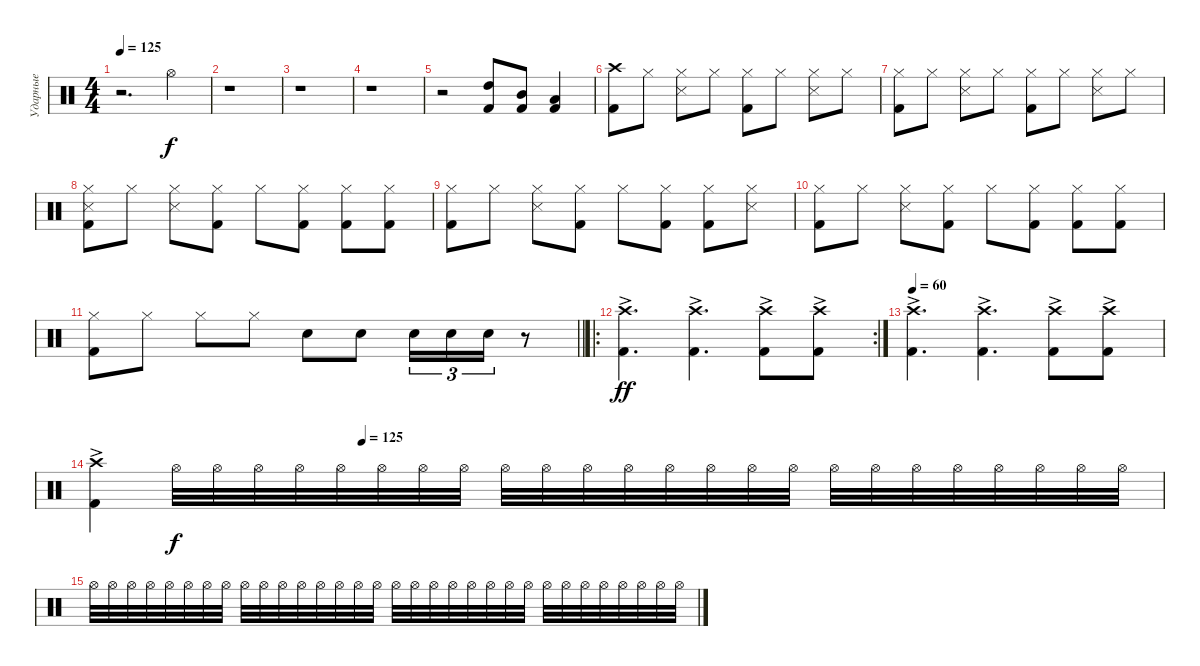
\track ("Ударные" "Ударные") {instrument percussion}
\staff
\articulation defaults
\ts (4 4)
\tempo 125
\clef neutral
\ks c
r.2{d dy ff} "Hi-Hat (open)".4{dy f} |
r.1 |
r.1 |
r.1 |
r.2 ("Kick (hit) 2" "High Tom (hit)").8 ("Kick (hit) 2" "Mid Tom (hit)").8 ("Kick (hit) 2" "Low Tom (hit)").4 |
("Kick (hit) 2" "Crash high (hit)").8 "Hi-Hat (closed)".8 ("Snare (side stick) 3" "Hi-Hat (closed)").8 "Hi-Hat (closed)".8 ("Kick (hit) 2" "Hi-Hat (closed)").8 "Hi-Hat (closed)".8 ("Snare (side stick) 3" "Hi-Hat (closed)").8 "Hi-Hat (closed)".8 |
("Kick (hit) 2" "Hi-Hat (closed)").8 "Hi-Hat (closed)".8 ("Snare (side stick) 3" "Hi-Hat (closed)").8 "Hi-Hat (closed)".8 ("Kick (hit) 2" "Hi-Hat (closed)").8 "Hi-Hat (closed)".8 ("Snare (side stick) 3" "Hi-Hat (closed)").8 "Hi-Hat (closed)".8 |
("Kick (hit) 2" "Snare (side stick) 3" "Hi-Hat (closed)").8 "Hi-Hat (closed)".8 ("Snare (side stick) 3" "Hi-Hat (closed)").8 ("Kick (hit) 2" "Hi-Hat (closed)").8 "Hi-Hat (closed)".8 ("Kick (hit) 2" "Hi-Hat (closed)").8 ("Kick (hit) 2" "Hi-Hat (closed)").8 ("Kick (hit) 2" "Hi-Hat (closed)").8 |
("Kick (hit) 2" "Hi-Hat (closed)").8 "Hi-Hat (closed)".8 ("Snare (side stick) 3" "Hi-Hat (closed)").8 ("Kick (hit) 2" "Hi-Hat (closed)").8 "Hi-Hat (closed)".8 ("Kick (hit) 2" "Hi-Hat (closed)").8 ("Kick (hit) 2" "Hi-Hat (closed)").8 ("Snare (side stick) 3" "Hi-Hat (closed)").8 |
("Kick (hit) 2" "Hi-Hat (closed)").8 "Hi-Hat (closed)".8 ("Snare (side stick) 3" "Hi-Hat (closed)").8 ("Kick (hit) 2" "Hi-Hat (closed)").8 "Hi-Hat (closed)".8 ("Kick (hit) 2" "Hi-Hat (closed)").8 ("Kick (hit) 2" "Hi-Hat (closed)").8 ("Kick (hit) 2" "Hi-Hat (closed)").8 |
\barLineRight lightlight
("Kick (hit) 2" "Hi-Hat (closed)").8 "Hi-Hat (closed)".8 "Hi-Hat (closed)".8 "Hi-Hat (closed)".8 "Snare (hit) 2".8 "Snare (hit) 2".8 "Snare (hit) 2".16{tu (3 2)} "Snare (hit) 2".16{tu (3 2)} "Snare (hit) 2".16{tu (3 2)} r.8 |
\ro
\rc 2
("Kick (hit) 2" "Crash high (hit)"{ac}).4{d dy ff} ("Kick (hit) 2" "Crash high (hit)"{ac}).4{d} ("Kick (hit) 2" "Crash high (hit)"{ac}).8 ("Kick (hit) 2" "Crash high (hit)"{ac}).8 |
\tempo 60
("Kick (hit) 2" "Crash high (hit)"{ac}).4{d} ("Kick (hit) 2" "Crash high (hit)"{ac}).4{d} ("Kick (hit) 2" "Crash high (hit)"{ac}).8 ("Kick (hit) 2" "Crash high (hit)"{ac}).8 |
\tempo (125 0.25)
("Kick (hit) 2" "Crash high (hit)"{ac}).4 "Hi-Hat (open)".32{dy f} "Hi-Hat (open)".32 "Hi-Hat (open)".32 "Hi-Hat (open)".32 "Hi-Hat (open)".32 "Hi-Hat (open)".32 "Hi-Hat (open)".32 "Hi-Hat (open)".32 "Hi-Hat (open)".32 "Hi-Hat (open)".32 "Hi-Hat (open)".32 "Hi-Hat (open)".32 "Hi-Hat (open)".32 "Hi-Hat (open)".32 "Hi-Hat (open)".32 "Hi-Hat (open)".32 "Hi-Hat (open)".32 "Hi-Hat (open)".32 "Hi-Hat (open)".32 "Hi-Hat (open)".32 "Hi-Hat (open)".32 "Hi-Hat (open)".32 "Hi-Hat (open)".32 "Hi-Hat (open)".32 |
"Hi-Hat (open)".32{volume 1} "Hi-Hat (open)".32 "Hi-Hat (open)".32 "Hi-Hat (open)".32 "Hi-Hat (open)".32 "Hi-Hat (open)".32 "Hi-Hat (open)".32 "Hi-Hat (open)".32 "Hi-Hat (open)".32 "Hi-Hat (open)".32 "Hi-Hat (open)".32 "Hi-Hat (open)".32 "Hi-Hat (open)".32 "Hi-Hat (open)".32 "Hi-Hat (open)".32 "Hi-Hat (open)".32 "Hi-Hat (open)".32 "Hi-Hat (open)".32 "Hi-Hat (open)".32 "Hi-Hat (open)".32 "Hi-Hat (open)".32 "Hi-Hat (open)".32 "Hi-Hat (open)".32 "Hi-Hat (open)".32 "Hi-Hat (open)".32 "Hi-Hat (open)".32 "Hi-Hat (open)".32 "Hi-Hat (open)".32 "Hi-Hat (open)".32 "Hi-Hat (open)".32 "Hi-Hat (open)".32 "Hi-Hat (open)".32
